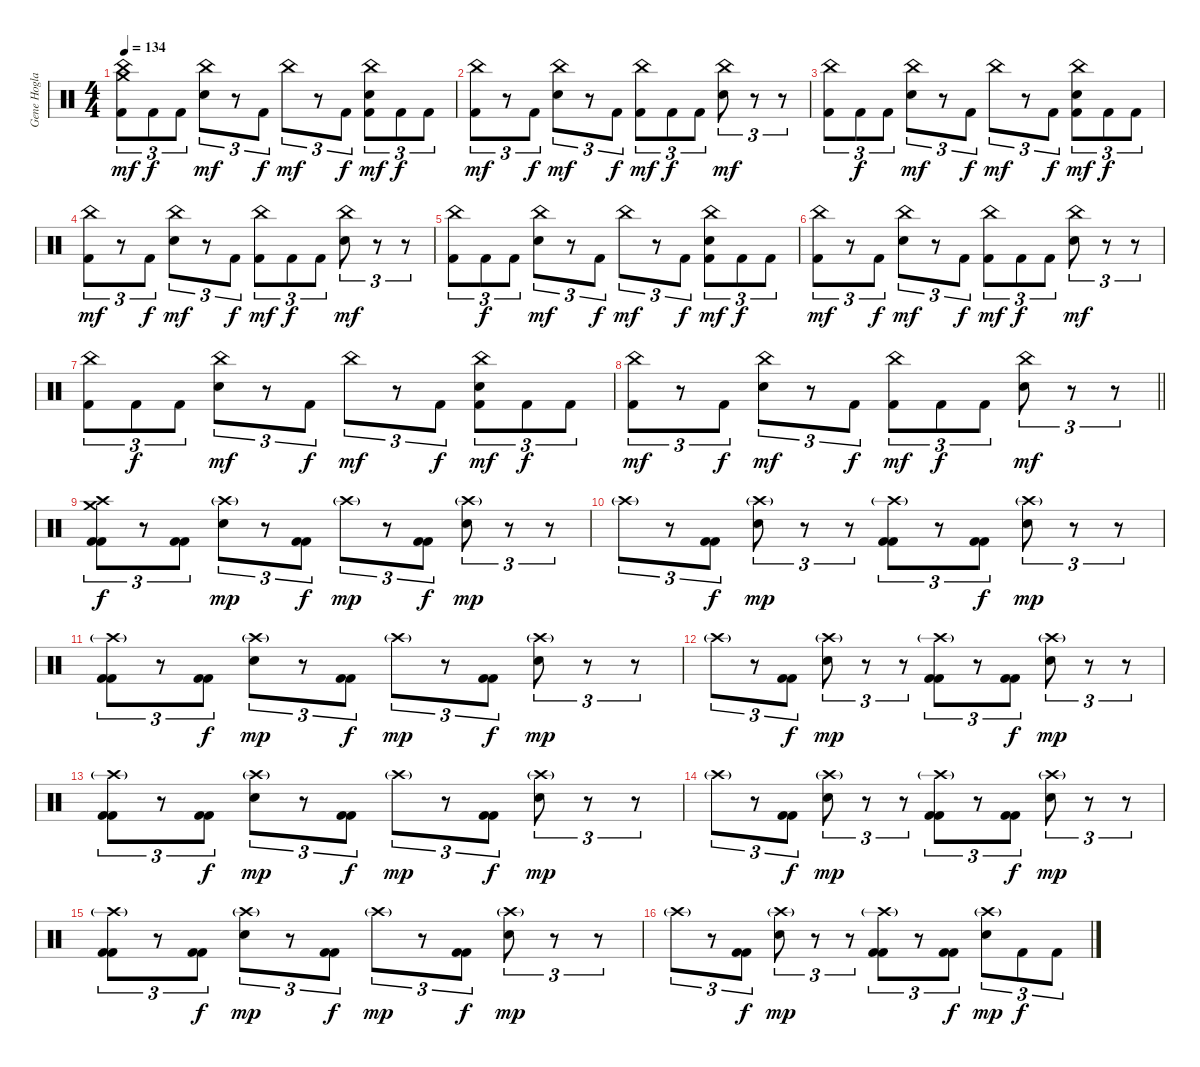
\track ("Gene Hoglan" "Gene Hogla") {instrument percussion}
\staff {score}
\articulation defaults
\ts (4 4)
\tempo 134
\clef neutral
\ks c
("Crash medium (hit)" "China (hit)" "Kick (hit) 2").8{tu (3 2) dy mf} "Kick (hit) 2".8{tu (3 2) dy f} "Kick (hit) 2".8{tu (3 2)} ("China (hit)" "Electric Snare (hit)").8{tu (3 2) dy mf} r.8{tu (3 2)} "Kick (hit) 2".8{tu (3 2) dy f} "China (hit)".8{tu (3 2) dy mf} r.8{tu (3 2)} "Kick (hit) 2".8{tu (3 2) dy f} ("China (hit)" "Electric Snare (hit)" "Kick (hit) 2").8{tu (3 2) dy mf} "Kick (hit) 2".8{tu (3 2) dy f} "Kick (hit) 2".8{tu (3 2)} |
("China (hit)" "Kick (hit) 2").8{tu (3 2) dy mf} r.8{tu (3 2)} "Kick (hit) 2".8{tu (3 2) dy f} ("China (hit)" "Electric Snare (hit)").8{tu (3 2) dy mf} r.8{tu (3 2)} "Kick (hit) 2".8{tu (3 2) dy f} ("China (hit)" "Kick (hit) 2").8{tu (3 2) dy mf} "Kick (hit) 2".8{tu (3 2) dy f} "Kick (hit) 2".8{tu (3 2)} ("China (hit)" "Electric Snare (hit)").8{tu (3 2) dy mf} r.8{tu (3 2)} r.8{tu (3 2)} |
("China (hit)" "Kick (hit) 2").8{tu (3 2)} "Kick (hit) 2".8{tu (3 2) dy f} "Kick (hit) 2".8{tu (3 2)} ("China (hit)" "Electric Snare (hit)").8{tu (3 2) dy mf} r.8{tu (3 2)} "Kick (hit) 2".8{tu (3 2) dy f} "China (hit)".8{tu (3 2) dy mf} r.8{tu (3 2)} "Kick (hit) 2".8{tu (3 2) dy f} ("China (hit)" "Electric Snare (hit)" "Kick (hit) 2").8{tu (3 2) dy mf} "Kick (hit) 2".8{tu (3 2) dy f} "Kick (hit) 2".8{tu (3 2)} |
("China (hit)" "Kick (hit) 2").8{tu (3 2) dy mf} r.8{tu (3 2)} "Kick (hit) 2".8{tu (3 2) dy f} ("China (hit)" "Electric Snare (hit)").8{tu (3 2) dy mf} r.8{tu (3 2)} "Kick (hit) 2".8{tu (3 2) dy f} ("China (hit)" "Kick (hit) 2").8{tu (3 2) dy mf} "Kick (hit) 2".8{tu (3 2) dy f} "Kick (hit) 2".8{tu (3 2)} ("China (hit)" "Electric Snare (hit)").8{tu (3 2) dy mf} r.8{tu (3 2)} r.8{tu (3 2)} |
("China (hit)" "Kick (hit) 2").8{tu (3 2)} "Kick (hit) 2".8{tu (3 2) dy f} "Kick (hit) 2".8{tu (3 2)} ("China (hit)" "Electric Snare (hit)").8{tu (3 2) dy mf} r.8{tu (3 2)} "Kick (hit) 2".8{tu (3 2) dy f} "China (hit)".8{tu (3 2) dy mf} r.8{tu (3 2)} "Kick (hit) 2".8{tu (3 2) dy f} ("China (hit)" "Electric Snare (hit)" "Kick (hit) 2").8{tu (3 2) dy mf} "Kick (hit) 2".8{tu (3 2) dy f} "Kick (hit) 2".8{tu (3 2)} |
("China (hit)" "Kick (hit) 2").8{tu (3 2) dy mf} r.8{tu (3 2)} "Kick (hit) 2".8{tu (3 2) dy f} ("China (hit)" "Electric Snare (hit)").8{tu (3 2) dy mf} r.8{tu (3 2)} "Kick (hit) 2".8{tu (3 2) dy f} ("China (hit)" "Kick (hit) 2").8{tu (3 2) dy mf} "Kick (hit) 2".8{tu (3 2) dy f} "Kick (hit) 2".8{tu (3 2)} ("China (hit)" "Electric Snare (hit)").8{tu (3 2) dy mf} r.8{tu (3 2)} r.8{tu (3 2)} |
("China (hit)" "Kick (hit) 2").8{tu (3 2)} "Kick (hit) 2".8{tu (3 2) dy f} "Kick (hit) 2".8{tu (3 2)} ("China (hit)" "Electric Snare (hit)").8{tu (3 2) dy mf} r.8{tu (3 2)} "Kick (hit) 2".8{tu (3 2) dy f} "China (hit)".8{tu (3 2) dy mf} r.8{tu (3 2)} "Kick (hit) 2".8{tu (3 2) dy f} ("China (hit)" "Electric Snare (hit)" "Kick (hit) 2").8{tu (3 2) dy mf} "Kick (hit) 2".8{tu (3 2) dy f} "Kick (hit) 2".8{tu (3 2)} |
\barLineRight lightlight
("China (hit)" "Kick (hit) 2").8{tu (3 2) dy mf} r.8{tu (3 2)} "Kick (hit) 2".8{tu (3 2) dy f} ("China (hit)" "Electric Snare (hit)").8{tu (3 2) dy mf} r.8{tu (3 2)} "Kick (hit) 2".8{tu (3 2) dy f} ("China (hit)" "Kick (hit) 2").8{tu (3 2) dy mf} "Kick (hit) 2".8{tu (3 2) dy f} "Kick (hit) 2".8{tu (3 2)} ("China (hit)" "Electric Snare (hit)").8{tu (3 2) dy mf} r.8{tu (3 2)} r.8{tu (3 2)} |
("Crash high (hit)" "Crash medium (hit)" "Kick (hit) 2" "Kick (hit) 2").8{tu (3 2) dy f} r.8{tu (3 2)} ("Kick (hit) 2" "Kick (hit) 2").8{tu (3 2)} ("Crash high (hit)"{g} "Electric Snare (hit)").8{tu (3 2) dy mp} r.8{tu (3 2)} ("Kick (hit) 2" "Kick (hit) 2").8{tu (3 2) dy f} "Crash high (hit)"{g}.8{tu (3 2) dy mp} r.8{tu (3 2)} ("Kick (hit) 2" "Kick (hit) 2").8{tu (3 2) dy f} ("Crash high (hit)"{g} "Electric Snare (hit)").8{tu (3 2) dy mp} r.8{tu (3 2)} r.8{tu (3 2)} |
"Crash high (hit)"{g}.8{tu (3 2)} r.8{tu (3 2)} ("Kick (hit) 2" "Kick (hit) 2").8{tu (3 2) dy f} ("Crash high (hit)"{g} "Electric Snare (hit)").8{tu (3 2) dy mp} r.8{tu (3 2)} r.8{tu (3 2)} ("Crash high (hit)"{g} "Kick (hit) 2" "Kick (hit) 2").8{tu (3 2)} r.8{tu (3 2)} ("Kick (hit) 2" "Kick (hit) 2").8{tu (3 2) dy f} ("Crash high (hit)"{g} "Electric Snare (hit)").8{tu (3 2) dy mp} r.8{tu (3 2)} r.8{tu (3 2)} |
("Crash high (hit)"{g} "Kick (hit) 2" "Kick (hit) 2").8{tu (3 2)} r.8{tu (3 2)} ("Kick (hit) 2" "Kick (hit) 2").8{tu (3 2) dy f} ("Crash high (hit)"{g} "Electric Snare (hit)").8{tu (3 2) dy mp} r.8{tu (3 2)} ("Kick (hit) 2" "Kick (hit) 2").8{tu (3 2) dy f} "Crash high (hit)"{g}.8{tu (3 2) dy mp} r.8{tu (3 2)} ("Kick (hit) 2" "Kick (hit) 2").8{tu (3 2) dy f} ("Crash high (hit)"{g} "Electric Snare (hit)").8{tu (3 2) dy mp} r.8{tu (3 2)} r.8{tu (3 2)} |
"Crash high (hit)"{g}.8{tu (3 2)} r.8{tu (3 2)} ("Kick (hit) 2" "Kick (hit) 2").8{tu (3 2) dy f} ("Crash high (hit)"{g} "Electric Snare (hit)").8{tu (3 2) dy mp} r.8{tu (3 2)} r.8{tu (3 2)} ("Crash high (hit)"{g} "Kick (hit) 2" "Kick (hit) 2").8{tu (3 2)} r.8{tu (3 2)} ("Kick (hit) 2" "Kick (hit) 2").8{tu (3 2) dy f} ("Crash high (hit)"{g} "Electric Snare (hit)").8{tu (3 2) dy mp} r.8{tu (3 2)} r.8{tu (3 2)} |
("Crash high (hit)"{g} "Kick (hit) 2" "Kick (hit) 2").8{tu (3 2)} r.8{tu (3 2)} ("Kick (hit) 2" "Kick (hit) 2").8{tu (3 2) dy f} ("Crash high (hit)"{g} "Electric Snare (hit)").8{tu (3 2) dy mp} r.8{tu (3 2)} ("Kick (hit) 2" "Kick (hit) 2").8{tu (3 2) dy f} "Crash high (hit)"{g}.8{tu (3 2) dy mp} r.8{tu (3 2)} ("Kick (hit) 2" "Kick (hit) 2").8{tu (3 2) dy f} ("Crash high (hit)"{g} "Electric Snare (hit)").8{tu (3 2) dy mp} r.8{tu (3 2)} r.8{tu (3 2)} |
"Crash high (hit)"{g}.8{tu (3 2)} r.8{tu (3 2)} ("Kick (hit) 2" "Kick (hit) 2").8{tu (3 2) dy f} ("Crash high (hit)"{g} "Electric Snare (hit)").8{tu (3 2) dy mp} r.8{tu (3 2)} r.8{tu (3 2)} ("Crash high (hit)"{g} "Kick (hit) 2" "Kick (hit) 2").8{tu (3 2)} r.8{tu (3 2)} ("Kick (hit) 2" "Kick (hit) 2").8{tu (3 2) dy f} ("Crash high (hit)"{g} "Electric Snare (hit)").8{tu (3 2) dy mp} r.8{tu (3 2)} r.8{tu (3 2)} |
("Crash high (hit)"{g} "Kick (hit) 2" "Kick (hit) 2").8{tu (3 2)} r.8{tu (3 2)} ("Kick (hit) 2" "Kick (hit) 2").8{tu (3 2) dy f} ("Crash high (hit)"{g} "Electric Snare (hit)").8{tu (3 2) dy mp} r.8{tu (3 2)} ("Kick (hit) 2" "Kick (hit) 2").8{tu (3 2) dy f} "Crash high (hit)"{g}.8{tu (3 2) dy mp} r.8{tu (3 2)} ("Kick (hit) 2" "Kick (hit) 2").8{tu (3 2) dy f} ("Crash high (hit)"{g} "Electric Snare (hit)").8{tu (3 2) dy mp} r.8{tu (3 2)} r.8{tu (3 2)} |
"Crash high (hit)"{g}.8{tu (3 2)} r.8{tu (3 2)} ("Kick (hit) 2" "Kick (hit) 2").8{tu (3 2) dy f} ("Crash high (hit)"{g} "Electric Snare (hit)").8{tu (3 2) dy mp} r.8{tu (3 2)} r.8{tu (3 2)} ("Crash high (hit)"{g} "Kick (hit) 2" "Kick (hit) 2").8{tu (3 2)} r.8{tu (3 2)} ("Kick (hit) 2" "Kick (hit) 2").8{tu (3 2) dy f} ("Crash high (hit)"{g} "Electric Snare (hit)").8{tu (3 2) dy mp} "Kick (hit) 2".8{tu (3 2) dy f} "Kick (hit) 2".8{tu (3 2)}
